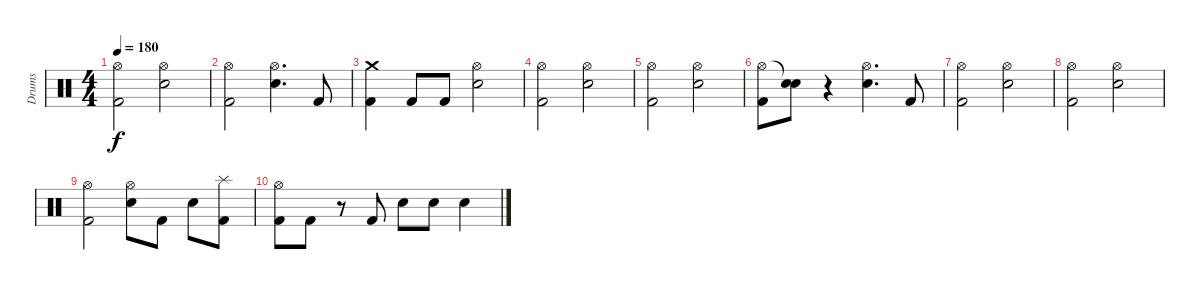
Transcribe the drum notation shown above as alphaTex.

\track ("Drums" "Drums") {instrument percussion}
\staff {score}
\articulation defaults
\ts (4 4)
\tempo 180
\clef neutral
\ks c
("Hi-Hat (open)" "Kick (hit) 2").2{dy f} ("Hi-Hat (open)" "Electric Snare (hit)").2 |
("Hi-Hat (open)" "Kick (hit) 2").2 ("Hi-Hat (open)" "Electric Snare (hit)").4{d} "Kick (hit) 2".8 |
("Crash medium (hit)" "Kick (hit) 2").4 "Kick (hit) 2".8 "Kick (hit) 2".8 ("Hi-Hat (open)" "Electric Snare (hit)").2 |
("Hi-Hat (open)" "Kick (hit) 2").2 ("Hi-Hat (open)" "Electric Snare (hit)").2 |
("Hi-Hat (open)" "Kick (hit) 2").2 ("Hi-Hat (open)" "Electric Snare (hit)").2 |
("Hi-Hat (open)" "Kick (hit) 2").8 ("Snare (hit)"{t} "Electric Snare (hit)").8 r.4 ("Hi-Hat (open)" "Electric Snare (hit)").4{d} "Kick (hit) 2".8 |
("Hi-Hat (open)" "Kick (hit) 2").2 ("Hi-Hat (open)" "Electric Snare (hit)").2 |
("Hi-Hat (open)" "Kick (hit) 2").2 ("Hi-Hat (open)" "Electric Snare (hit)").2 |
("Hi-Hat (open)" "Kick (hit) 2").2 ("Hi-Hat (open)" "Electric Snare (hit)").8 "Kick (hit) 2".8 "Electric Snare (hit)".8 ("Splash (hit)" "Kick (hit) 2").8 |
("Hi-Hat (open)" "Kick (hit) 2").8 "Kick (hit) 2".8 r.8 "Kick (hit) 2".8 "Electric Snare (hit)".8 "Electric Snare (hit)".8 "Electric Snare (hit)".4
